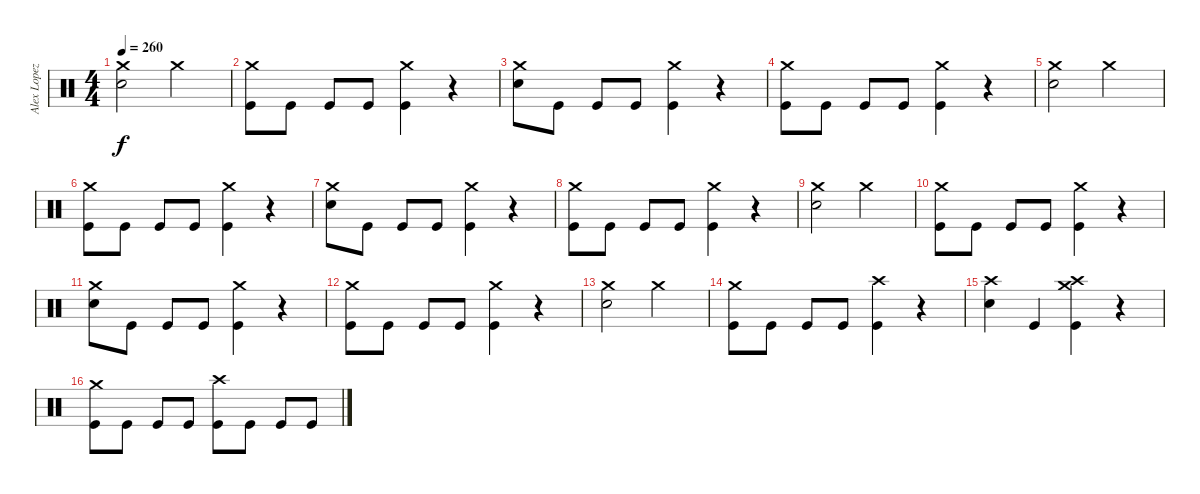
\track ("Alex Lopez" "Alex Lopez") {instrument percussion}
\staff {score}
\articulation defaults
\ts (4 4)
\tempo 260
\clef neutral
\ks c
("Crash medium (hit)" "Electric Snare (hit)").2{dy f} "Crash medium (hit)".2 |
("Crash medium (hit)" "Kick (hit)").8 "Kick (hit)".8 "Kick (hit)".8 "Kick (hit)".8 ("Crash medium (hit)" "Kick (hit)").4 r.4 |
("Crash medium (hit)" "Electric Snare (hit)").8 "Kick (hit)".8 "Kick (hit)".8 "Kick (hit)".8 ("Crash medium (hit)" "Kick (hit)").4 r.4 |
("Crash medium (hit)" "Kick (hit)").8 "Kick (hit)".8 "Kick (hit)".8 "Kick (hit)".8 ("Crash medium (hit)" "Kick (hit)").4 r.4 |
("Crash medium (hit)" "Electric Snare (hit)").2 "Crash medium (hit)".2 |
("Crash medium (hit)" "Kick (hit)").8 "Kick (hit)".8 "Kick (hit)".8 "Kick (hit)".8 ("Crash medium (hit)" "Kick (hit)").4 r.4 |
("Crash medium (hit)" "Electric Snare (hit)").8 "Kick (hit)".8 "Kick (hit)".8 "Kick (hit)".8 ("Crash medium (hit)" "Kick (hit)").4 r.4 |
("Crash medium (hit)" "Kick (hit)").8 "Kick (hit)".8 "Kick (hit)".8 "Kick (hit)".8 ("Crash medium (hit)" "Kick (hit)").4 r.4 |
("Crash medium (hit)" "Electric Snare (hit)").2 "Crash medium (hit)".2 |
("Crash medium (hit)" "Kick (hit)").8 "Kick (hit)".8 "Kick (hit)".8 "Kick (hit)".8 ("Crash medium (hit)" "Kick (hit)").4 r.4 |
("Crash medium (hit)" "Electric Snare (hit)").8 "Kick (hit)".8 "Kick (hit)".8 "Kick (hit)".8 ("Crash medium (hit)" "Kick (hit)").4 r.4 |
("Crash medium (hit)" "Kick (hit)").8 "Kick (hit)".8 "Kick (hit)".8 "Kick (hit)".8 ("Crash medium (hit)" "Kick (hit)").4 r.4 |
("Crash medium (hit)" "Electric Snare (hit)").2 "Crash medium (hit)".2 |
("Crash medium (hit)" "Kick (hit)").8 "Kick (hit)".8 "Kick (hit)".8 "Kick (hit)".8 ("Crash high (hit)" "Kick (hit)").4 r.4 |
("Crash high (hit)" "Electric Snare (hit)").4 "Kick (hit)".4 ("Crash high (hit)" "Crash medium (hit)" "Kick (hit)").4 r.4 |
("Crash medium (hit)" "Kick (hit)").8 "Kick (hit)".8 "Kick (hit)".8 "Kick (hit)".8 ("Crash high (hit)" "Kick (hit)").8 "Kick (hit)".8 "Kick (hit)".8 "Kick (hit)".8
